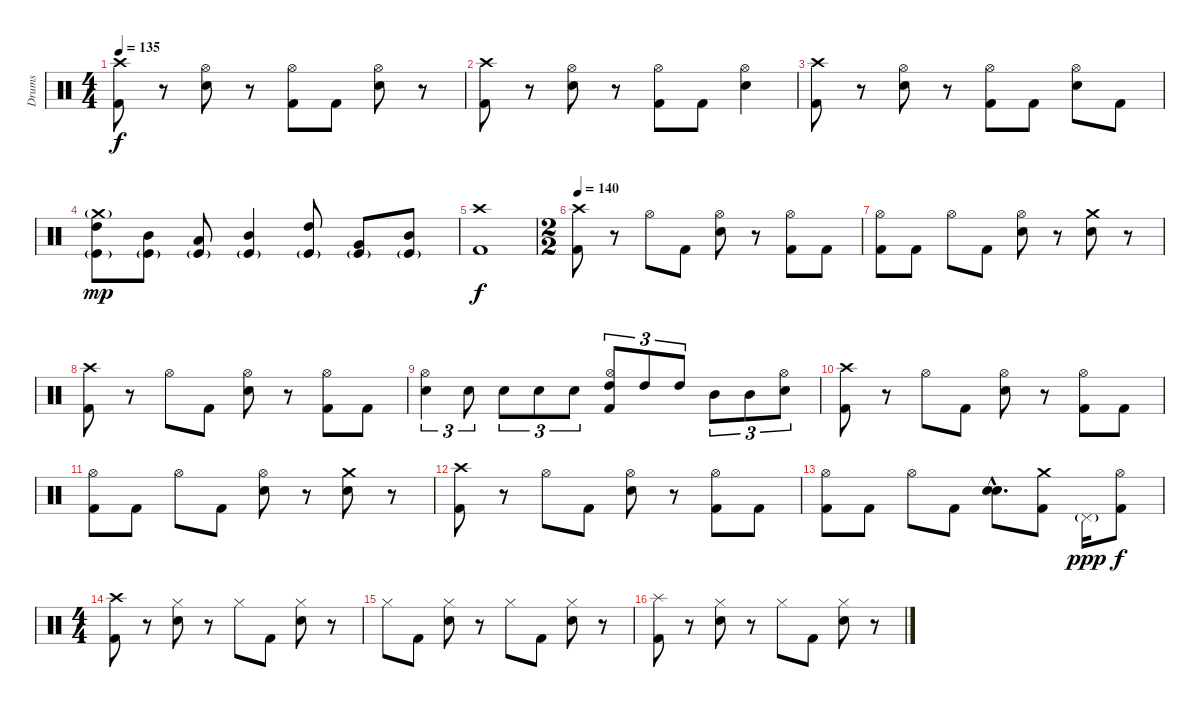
\track ("Drums" "Drums") {instrument percussion}
\staff {score}
\articulation defaults
\ts (4 4)
\tempo 135
\clef neutral
\ks c
("Crash high (hit)" "Kick (hit) 2").8{dy f} r.8 ("Hi-Hat (open)" "Snare (hit) 2").8 r.8 ("Hi-Hat (open)" "Kick (hit) 2").8 "Kick (hit) 2".8 ("Hi-Hat (open)" "Snare (hit) 2").8 r.8 |
("Crash high (hit)" "Kick (hit) 2").8 r.8 ("Hi-Hat (open)" "Snare (hit) 2").8 r.8 ("Hi-Hat (open)" "Kick (hit) 2").8 "Kick (hit) 2".8 ("Hi-Hat (open)" "Snare (hit) 2").4 |
("Crash high (hit)" "Kick (hit) 2").8 r.8 ("Hi-Hat (open)" "Snare (hit) 2").8 r.8 ("Hi-Hat (open)" "Kick (hit) 2").8 "Kick (hit) 2".8 ("Hi-Hat (open)" "Snare (hit) 2").8 "Kick (hit) 2".8 |
("Crash medium (hit)"{g} "High Tom (hit)" "Kick (hit)"{g}).8{dy mp} ("Mid Tom (hit)" "Kick (hit)"{g}).8 ("Low Tom (hit)" "Kick (hit)"{g}).8 ("Mid Tom (hit)" "Kick (hit)"{g}).4 ("High Tom (hit)" "Kick (hit)"{g}).8 ("Very Low Tom (hit)" "Kick (hit)"{g}).8 ("Mid Tom (hit)" "Kick (hit)"{g}).8 |
("Crash high (hit)" "Kick (hit) 2").1{dy f} |
\ts (2 2)
\tempo 140
("Crash high (hit)" "Kick (hit) 2").8 r.8 "Hi-Hat (open)".8 "Kick (hit) 2".8 ("Hi-Hat (open)" "Snare (hit) 2").8 r.8 ("Hi-Hat (open)" "Kick (hit) 2").8 "Kick (hit) 2".8 |
("Hi-Hat (open)" "Kick (hit) 2").8 "Kick (hit) 2".8 "Hi-Hat (open)".8 "Kick (hit) 2".8 ("Hi-Hat (open)" "Snare (hit) 2").8 r.8 ("Crash medium (hit)" "Snare (hit) 2").8 r.8 |
("Crash high (hit)" "Kick (hit) 2").8 r.8 "Hi-Hat (open)".8 "Kick (hit) 2".8 ("Hi-Hat (open)" "Snare (hit) 2").8 r.8 ("Hi-Hat (open)" "Kick (hit) 2").8 "Kick (hit) 2".8 |
("Hi-Hat (open)" "Snare (hit) 2").4{tu (3 2)} "Snare (hit) 2".8{tu (3 2)} "Snare (hit) 2".8{tu (3 2)} "Snare (hit) 2".8{tu (3 2)} "Snare (hit) 2".8{tu (3 2)} ("Hi-Hat (open)" "High Tom (hit)" "Kick (hit) 2").8{tu (3 2)} "High Tom (hit)".8{tu (3 2)} "High Tom (hit)".8{tu (3 2)} "Mid Tom (hit)".8{tu (3 2)} "Mid Tom (hit)".8{tu (3 2)} ("Hi-Hat (open)" "Snare (hit) 2").8{tu (3 2)} |
("Crash high (hit)" "Kick (hit) 2").8 r.8 "Hi-Hat (open)".8 "Kick (hit) 2".8 ("Hi-Hat (open)" "Snare (hit) 2").8 r.8 ("Hi-Hat (open)" "Kick (hit) 2").8 "Kick (hit) 2".8 |
("Hi-Hat (open)" "Kick (hit) 2").8 "Kick (hit) 2".8 "Hi-Hat (open)".8 "Kick (hit) 2".8 ("Hi-Hat (open)" "Snare (hit) 2").8 r.8 ("Crash medium (hit)" "Snare (hit) 2").8 r.8 |
("Crash high (hit)" "Kick (hit) 2").8 r.8 "Hi-Hat (open)".8 "Kick (hit) 2".8 ("Hi-Hat (open)" "Snare (hit) 2").8 r.8 ("Hi-Hat (open)" "Kick (hit) 2").8 "Kick (hit) 2".8 |
("Hi-Hat (open)" "Kick (hit) 2").8 "Kick (hit) 2".8 "Hi-Hat (open)".8 "Kick (hit) 2".8 ("Snare (hit) 2"{hac} "Snare (hit) 2"{hac}).8{d bd 240} ("Crash medium (hit)" "Kick (hit) 2").8 "Pedal Hi-Hat (hit)"{g}.16{dy ppp} ("Hi-Hat (open)" "Kick (hit) 2").8{dy f} |
\ts (4 4)
("Crash high (hit)" "Kick (hit) 2").8 r.8 ("Hi-Hat (closed)" "Snare (hit) 2").8 r.8 "Hi-Hat (closed)".8 "Kick (hit) 2".8 ("Hi-Hat (closed)" "Snare (hit) 2").8 r.8 |
"Hi-Hat (closed)".8 "Kick (hit) 2".8 ("Hi-Hat (closed)" "Snare (hit) 2").8 r.8 "Hi-Hat (closed)".8 "Kick (hit) 2".8 ("Hi-Hat (closed)" "Snare (hit) 2").8 r.8 |
("Splash (hit)" "Kick (hit) 2").8 r.8 ("Hi-Hat (closed)" "Snare (hit) 2").8 r.8 "Hi-Hat (closed)".8 "Kick (hit) 2".8 ("Hi-Hat (closed)" "Snare (hit) 2").8 r.8
